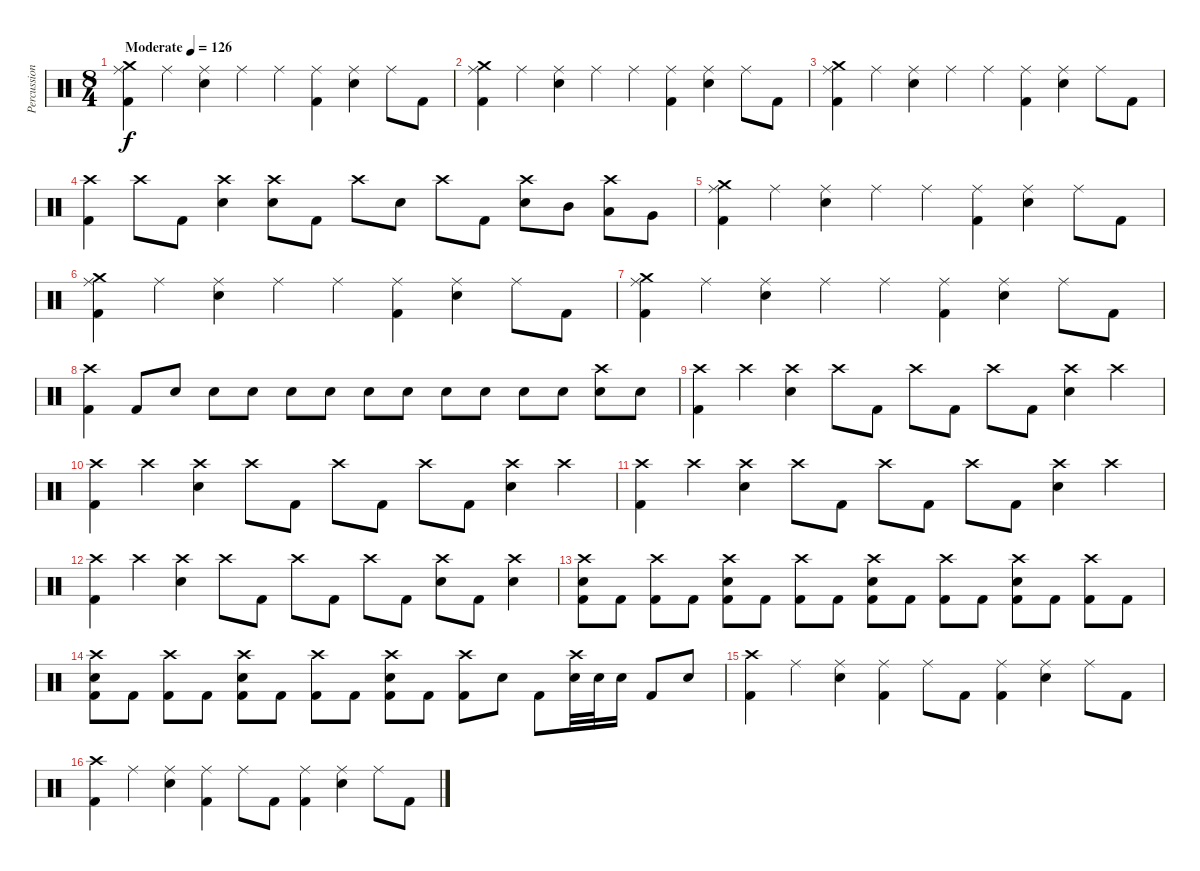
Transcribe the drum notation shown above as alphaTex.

\track ("Percussion" "Percussion") {instrument percussion}
\staff {score}
\articulation defaults
\ts (8 4)
\tempo (126 "Moderate")
\clef neutral
\ks c
("Kick (hit) 2" "Ride (middle)" "Crash medium (hit)").4{dy f} "Ride (middle)".4 ("Electric Snare (hit)" "Ride (middle)").4 "Ride (middle)".4 "Ride (middle)".4 ("Kick (hit) 2" "Ride (middle)").4 ("Electric Snare (hit)" "Ride (middle)").4 "Ride (middle)".8 "Kick (hit) 2".8 |
("Kick (hit) 2" "Ride (middle)" "Crash medium (hit)").4 "Ride (middle)".4 ("Electric Snare (hit)" "Ride (middle)").4 "Ride (middle)".4 "Ride (middle)".4 ("Kick (hit) 2" "Ride (middle)").4 ("Electric Snare (hit)" "Ride (middle)").4 "Ride (middle)".8 "Kick (hit) 2".8 |
("Kick (hit) 2" "Ride (middle)" "Crash medium (hit)").4 "Ride (middle)".4 ("Electric Snare (hit)" "Ride (middle)").4 "Ride (middle)".4 "Ride (middle)".4 ("Kick (hit) 2" "Ride (middle)").4 ("Electric Snare (hit)" "Ride (middle)").4 "Ride (middle)".8 "Kick (hit) 2".8 |
("Kick (hit) 2" "Crash high (hit)").4 "Crash high (hit)".8 "Kick (hit) 2".8 ("Electric Snare (hit)" "Crash high (hit)").4 ("Electric Snare (hit)" "Crash high (hit)").8 "Kick (hit) 2".8 "Crash high (hit)".8 "Electric Snare (hit)".8 "Crash high (hit)".8 "Kick (hit) 2".8 ("Electric Snare (hit)" "Crash high (hit)").8 "Mid Tom (hit)".8 ("Low Tom (hit)" "Crash high (hit)").8 "Very Low Tom (hit)".8 |
("Kick (hit) 2" "Ride (middle)" "Crash medium (hit)").4 "Ride (middle)".4 ("Electric Snare (hit)" "Ride (middle)").4 "Ride (middle)".4 "Ride (middle)".4 ("Kick (hit) 2" "Ride (middle)").4 ("Electric Snare (hit)" "Ride (middle)").4 "Ride (middle)".8 "Kick (hit) 2".8 |
("Kick (hit) 2" "Ride (middle)" "Crash medium (hit)").4 "Ride (middle)".4 ("Electric Snare (hit)" "Ride (middle)").4 "Ride (middle)".4 "Ride (middle)".4 ("Kick (hit) 2" "Ride (middle)").4 ("Electric Snare (hit)" "Ride (middle)").4 "Ride (middle)".8 "Kick (hit) 2".8 |
("Kick (hit) 2" "Ride (middle)" "Crash medium (hit)").4 "Ride (middle)".4 ("Electric Snare (hit)" "Ride (middle)").4 "Ride (middle)".4 "Ride (middle)".4 ("Kick (hit) 2" "Ride (middle)").4 ("Electric Snare (hit)" "Ride (middle)").4 "Ride (middle)".8 "Kick (hit) 2".8 |
("Kick (hit) 2" "Crash high (hit)").4 "Kick (hit) 2".8 "Electric Snare (hit)".8 "Electric Snare (hit)".8 "Electric Snare (hit)".8 "Electric Snare (hit)".8 "Electric Snare (hit)".8 "Electric Snare (hit)".8 "Electric Snare (hit)".8 "Electric Snare (hit)".8 "Electric Snare (hit)".8 "Electric Snare (hit)".8 "Electric Snare (hit)".8 ("Electric Snare (hit)" "Crash high (hit)").8 "Electric Snare (hit)".8 |
("Kick (hit) 2" "Crash high (hit)").4 "Crash high (hit)".4 ("Electric Snare (hit)" "Crash high (hit)").4 "Crash high (hit)".8 "Kick (hit) 2".8 "Crash high (hit)".8 "Kick (hit) 2".8 "Crash high (hit)".8 "Kick (hit) 2".8 ("Electric Snare (hit)" "Crash high (hit)").4 "Crash high (hit)".4 |
("Kick (hit) 2" "Crash high (hit)").4 "Crash high (hit)".4 ("Electric Snare (hit)" "Crash high (hit)").4 "Crash high (hit)".8 "Kick (hit) 2".8 "Crash high (hit)".8 "Kick (hit) 2".8 "Crash high (hit)".8 "Kick (hit) 2".8 ("Electric Snare (hit)" "Crash high (hit)").4 "Crash high (hit)".4 |
("Kick (hit) 2" "Crash high (hit)").4 "Crash high (hit)".4 ("Electric Snare (hit)" "Crash high (hit)").4 "Crash high (hit)".8 "Kick (hit) 2".8 "Crash high (hit)".8 "Kick (hit) 2".8 "Crash high (hit)".8 "Kick (hit) 2".8 ("Electric Snare (hit)" "Crash high (hit)").4 "Crash high (hit)".4 |
("Kick (hit) 2" "Crash high (hit)").4 "Crash high (hit)".4 ("Electric Snare (hit)" "Crash high (hit)").4 "Crash high (hit)".8 "Kick (hit) 2".8 "Crash high (hit)".8 "Kick (hit) 2".8 "Crash high (hit)".8 "Kick (hit) 2".8 ("Electric Snare (hit)" "Crash high (hit)").8 "Kick (hit) 2".8 ("Electric Snare (hit)" "Crash high (hit)").4 |
("Kick (hit) 2" "Electric Snare (hit)" "Crash high (hit)").8 "Kick (hit) 2".8 ("Kick (hit) 2" "Crash high (hit)").8 "Kick (hit) 2".8 ("Kick (hit) 2" "Electric Snare (hit)" "Crash high (hit)").8 "Kick (hit) 2".8 ("Kick (hit) 2" "Crash high (hit)").8 "Kick (hit) 2".8 ("Kick (hit) 2" "Electric Snare (hit)" "Crash high (hit)").8 "Kick (hit) 2".8 ("Kick (hit) 2" "Crash high (hit)").8 "Kick (hit) 2".8 ("Kick (hit) 2" "Electric Snare (hit)" "Crash high (hit)").8 "Kick (hit) 2".8 ("Kick (hit) 2" "Crash high (hit)").8 "Kick (hit) 2".8 |
("Kick (hit) 2" "Electric Snare (hit)" "Crash high (hit)").8 "Kick (hit) 2".8 ("Kick (hit) 2" "Crash high (hit)").8 "Kick (hit) 2".8 ("Kick (hit) 2" "Electric Snare (hit)" "Crash high (hit)").8 "Kick (hit) 2".8 ("Kick (hit) 2" "Crash high (hit)").8 "Kick (hit) 2".8 ("Kick (hit) 2" "Electric Snare (hit)" "Crash high (hit)").8 "Kick (hit) 2".8 ("Kick (hit) 2" "Crash high (hit)").8 "Electric Snare (hit)".8 "Kick (hit) 2".8 ("Electric Snare (hit)" "Crash high (hit)").32 "Electric Snare (hit)".32 "Electric Snare (hit)".16 "Kick (hit) 2".8 "Electric Snare (hit)".8 |
("Kick (hit) 2" "Crash high (hit)").4 "Ride (middle)".4 ("Electric Snare (hit)" "Ride (middle)").4 ("Kick (hit) 2" "Ride (middle)").4 "Ride (middle)".8 "Kick (hit) 2".8 ("Kick (hit) 2" "Ride (middle)").4 ("Electric Snare (hit)" "Ride (middle)").4 "Ride (middle)".8 "Kick (hit) 2".8 |
("Kick (hit) 2" "Crash high (hit)").4 "Ride (middle)".4 ("Electric Snare (hit)" "Ride (middle)").4 ("Kick (hit) 2" "Ride (middle)").4 "Ride (middle)".8 "Kick (hit) 2".8 ("Kick (hit) 2" "Ride (middle)").4 ("Electric Snare (hit)" "Ride (middle)").4 "Ride (middle)".8 "Kick (hit) 2".8
